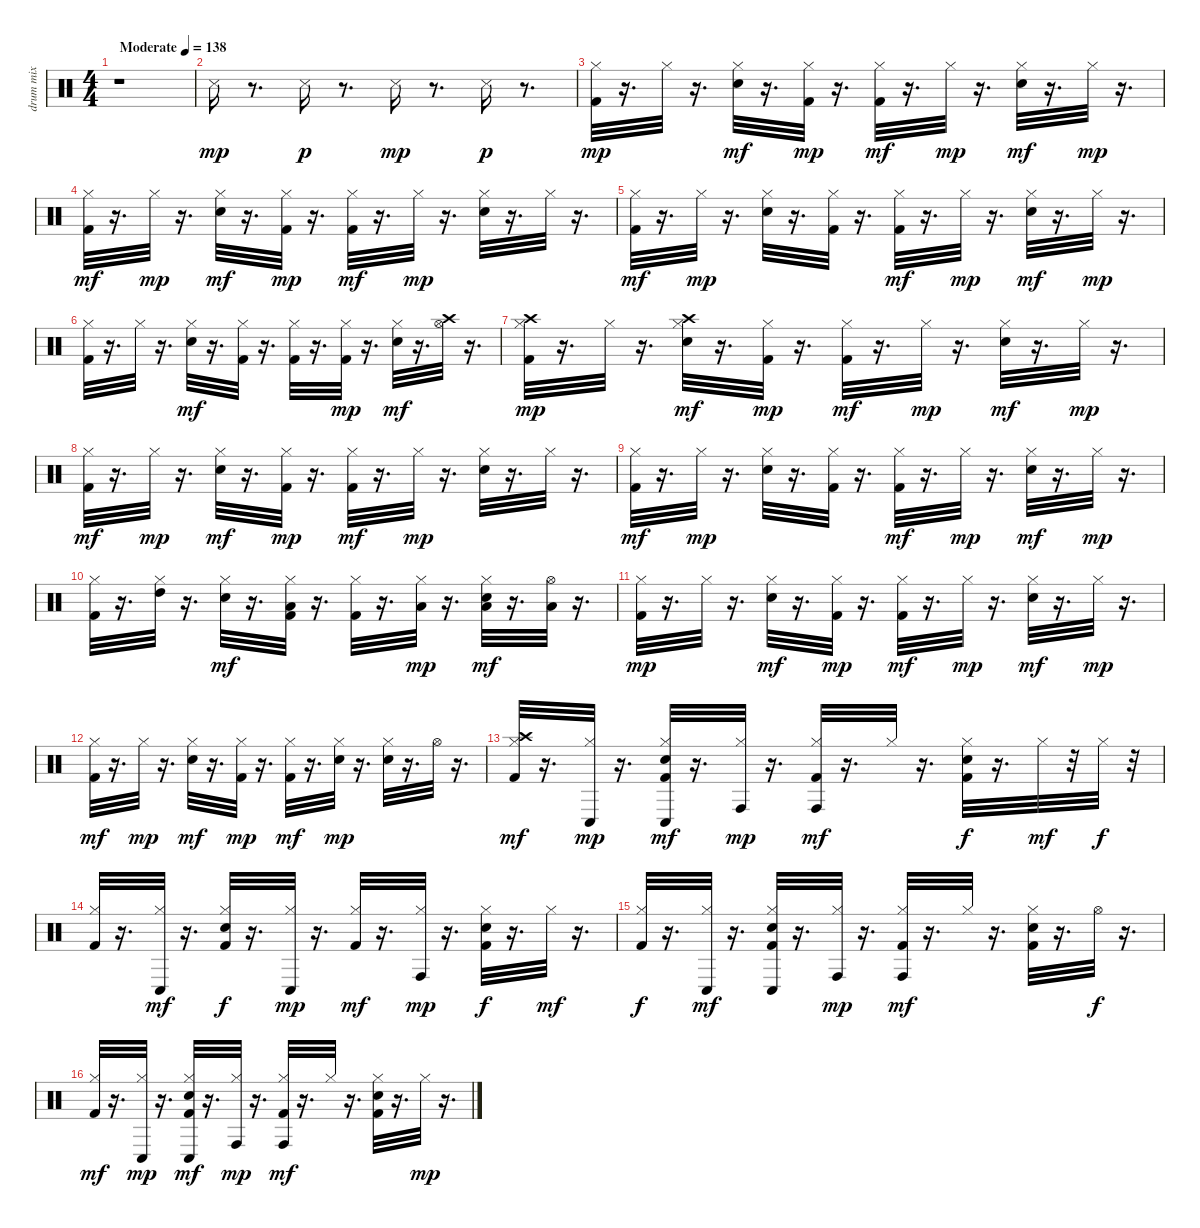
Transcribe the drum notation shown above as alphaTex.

\track ("drum mix" "drum mix") {instrument percussion}
\staff {score}
\articulation defaults
\ts (4 4)
\tempo (138 "Moderate")
\clef neutral
\ks c
r.1{dy mp} |
"Snare (side stick) 3".16 r.8{d} "Snare (side stick) 3".16{dy p} r.8{d} "Snare (side stick) 3".16{dy mp} r.8{d} "Snare (side stick) 3".16{dy p} r.8{d} |
("Hi-Hat (closed)" "Kick (hit) 2").32{dy mp} r.16{d} "Hi-Hat (closed)".32 r.16{d} ("Snare (hit) 2" "Hi-Hat (closed)").32{dy mf} r.16{d} ("Hi-Hat (closed)" "Kick (hit) 2").32{dy mp} r.16{d} ("Hi-Hat (closed)" "Kick (hit) 2").32{dy mf} r.16{d} "Hi-Hat (closed)".32{dy mp} r.16{d} ("Snare (hit) 2" "Hi-Hat (closed)").32{dy mf} r.16{d} "Hi-Hat (closed)".32{dy mp} r.16{d} |
("Hi-Hat (closed)" "Kick (hit) 2").32{dy mf} r.16{d} "Hi-Hat (closed)".32{dy mp} r.16{d} ("Snare (hit) 2" "Hi-Hat (closed)").32{dy mf} r.16{d} ("Hi-Hat (closed)" "Kick (hit) 2").32{dy mp} r.16{d} ("Hi-Hat (closed)" "Kick (hit) 2").32{dy mf} r.16{d} "Hi-Hat (closed)".32{dy mp} r.16{d} ("Snare (hit) 2" "Hi-Hat (closed)").32 r.16{d} "Hi-Hat (closed)".32 r.16{d} |
("Hi-Hat (closed)" "Kick (hit) 2").32{dy mf} r.16{d} "Hi-Hat (closed)".32{dy mp} r.16{d} ("Snare (hit) 2" "Hi-Hat (closed)").32 r.16{d} ("Hi-Hat (closed)" "Kick (hit) 2").32 r.16{d} ("Hi-Hat (closed)" "Kick (hit) 2").32{dy mf} r.16{d} "Hi-Hat (closed)".32{dy mp} r.16{d} ("Snare (hit) 2" "Hi-Hat (closed)").32{dy mf} r.16{d} "Hi-Hat (closed)".32{dy mp} r.16{d} |
("Hi-Hat (closed)" "Kick (hit) 2").32 r.16{d} "Hi-Hat (closed)".32 r.16{d} ("Snare (hit) 2" "Hi-Hat (closed)").32{dy mf} r.16{d} ("Hi-Hat (closed)" "Kick (hit) 2").32 r.16{d} ("Hi-Hat (closed)" "Kick (hit) 2").32 r.16{d} ("Hi-Hat (closed)" "Kick (hit) 2").32{dy mp} r.16{d} ("Snare (hit) 2" "Hi-Hat (closed)").32{dy mf} r.16{d} ("Hi-Hat (open)" "Crash high (hit)").32 r.16{d} |
("Hi-Hat (closed)" "Crash high (hit)" "Kick (hit) 2").32{dy mp} r.16{d} "Hi-Hat (closed)".32 r.16{d} ("Snare (hit) 2" "Hi-Hat (closed)" "Crash high (hit)").32{dy mf} r.16{d} ("Hi-Hat (closed)" "Kick (hit) 2").32{dy mp} r.16{d} ("Hi-Hat (closed)" "Kick (hit) 2").32{dy mf} r.16{d} "Hi-Hat (closed)".32{dy mp} r.16{d} ("Snare (hit) 2" "Hi-Hat (closed)").32{dy mf} r.16{d} "Hi-Hat (closed)".32{dy mp} r.16{d} |
("Hi-Hat (closed)" "Kick (hit) 2").32{dy mf} r.16{d} "Hi-Hat (closed)".32{dy mp} r.16{d} ("Snare (hit) 2" "Hi-Hat (closed)").32{dy mf} r.16{d} ("Hi-Hat (closed)" "Kick (hit) 2").32{dy mp} r.16{d} ("Hi-Hat (closed)" "Kick (hit) 2").32{dy mf} r.16{d} "Hi-Hat (closed)".32{dy mp} r.16{d} ("Snare (hit) 2" "Hi-Hat (closed)").32 r.16{d} "Hi-Hat (closed)".32 r.16{d} |
("Hi-Hat (closed)" "Kick (hit) 2").32{dy mf} r.16{d} "Hi-Hat (closed)".32{dy mp} r.16{d} ("Snare (hit) 2" "Hi-Hat (closed)").32 r.16{d} ("Hi-Hat (closed)" "Kick (hit) 2").32 r.16{d} ("Hi-Hat (closed)" "Kick (hit) 2").32{dy mf} r.16{d} "Hi-Hat (closed)".32{dy mp} r.16{d} ("Snare (hit) 2" "Hi-Hat (closed)").32{dy mf} r.16{d} "Hi-Hat (closed)".32{dy mp} r.16{d} |
("Hi-Hat (closed)" "Kick (hit) 2").32 r.16{d} ("Hi-Hat (closed)" "High Tom (hit)").32 r.16{d} ("Snare (hit) 2" "Hi-Hat (closed)").32{dy mf} r.16{d} ("Hi-Hat (closed)" "Low Tom (hit)" "Kick (hit) 2").32 r.16{d} ("Hi-Hat (closed)" "Kick (hit) 2").32 r.16{d} ("Low Floor Tom (hit)" "Hi-Hat (closed)").32{dy mp} r.16{d} ("Snare (hit) 2" "Low Floor Tom (hit)" "Hi-Hat (closed)").32{dy mf} r.16{d} ("Low Floor Tom (hit)" "Hi-Hat (open)").32 r.16{d} |
("Hi-Hat (closed)" "Kick (hit) 2").32{dy mp} r.16{d} "Hi-Hat (closed)".32 r.16{d} ("Snare (hit) 2" "Hi-Hat (closed)").32{dy mf} r.16{d} ("Hi-Hat (closed)" "Kick (hit) 2").32{dy mp} r.16{d} ("Hi-Hat (closed)" "Kick (hit) 2").32{dy mf} r.16{d} "Hi-Hat (closed)".32{dy mp} r.16{d} ("Snare (hit) 2" "Hi-Hat (closed)").32{dy mf} r.16{d} "Hi-Hat (closed)".32{dy mp} r.16{d} |
("Hi-Hat (closed)" "Kick (hit) 2").32{dy mf} r.16{d} "Hi-Hat (closed)".32{dy mp} r.16{d} ("Snare (hit) 2" "Hi-Hat (closed)").32{dy mf} r.16{d} ("Hi-Hat (closed)" "Kick (hit) 2").32{dy mp} r.16{d} ("Hi-Hat (closed)" "Kick (hit) 2").32{dy mf} r.16{d} ("Snare (hit) 2" "Hi-Hat (closed)").32{dy mp} r.16{d} ("Snare (hit) 2" "Hi-Hat (closed)").32 r.16{d} "Hi-Hat (open)".32 r.16{d} |
("Hi-Hat (closed)" "Crash high (hit)" "Kick (hit) 2").32{dy mf} r.16{d} ("Hi-Hat (closed)" "Conga low (hit)").32{dy mp} r.16{d} ("Snare (hit) 2" "Hi-Hat (closed)" "Conga low (hit)" "Kick (hit) 2").32{dy mf} r.16{d} ("Hi-Hat (closed)" "Conga high (hit)").32{dy mp} r.16{d} ("Hi-Hat (closed)" "Conga high (hit)" "Kick (hit) 2").32{dy mf} r.16{d} "Hi-Hat (closed)".32 r.16{d} ("Snare (hit) 2" "Hi-Hat (closed)" "Kick (hit) 2").32{dy f} r.16{d} "Hi-Hat (closed)".32{dy mf} r.32 "Hi-Hat (closed)".32{dy f} r.32 |
("Hi-Hat (closed)" "Kick (hit) 2").32 r.16{d} ("Hi-Hat (closed)" "Conga low (hit)").32{dy mf} r.16{d} ("Snare (hit) 2" "Hi-Hat (closed)" "Kick (hit) 2").32{dy f} r.16{d} ("Hi-Hat (closed)" "Conga low (hit)").32{dy mp} r.16{d} ("Hi-Hat (closed)" "Kick (hit) 2").32{dy mf} r.16{d} ("Hi-Hat (closed)" "Conga high (hit)").32{dy mp} r.16{d} ("Snare (hit) 2" "Hi-Hat (closed)" "Kick (hit) 2").32{dy f} r.16{d} "Hi-Hat (closed)".32{dy mf} r.16{d} |
("Hi-Hat (closed)" "Kick (hit) 2").32{dy f} r.16{d} ("Hi-Hat (closed)" "Conga low (hit)").32{dy mf} r.16{d} ("Snare (hit) 2" "Hi-Hat (closed)" "Conga low (hit)" "Kick (hit) 2").32 r.16{d} ("Hi-Hat (closed)" "Conga high (hit)").32{dy mp} r.16{d} ("Hi-Hat (closed)" "Conga high (hit)" "Kick (hit) 2").32{dy mf} r.16{d} "Hi-Hat (closed)".32 r.16{d} ("Snare (hit) 2" "Hi-Hat (closed)" "Kick (hit) 2").32 r.16{d} "Hi-Hat (open)".32{dy f} r.16{d} |
("Hi-Hat (closed)" "Kick (hit) 2").32{dy mf} r.16{d} ("Hi-Hat (closed)" "Conga low (hit)").32{dy mp} r.16{d} ("Snare (hit) 2" "Hi-Hat (closed)" "Conga low (hit)" "Kick (hit) 2").32{dy mf} r.16{d} ("Hi-Hat (closed)" "Conga high (hit)").32{dy mp} r.16{d} ("Hi-Hat (closed)" "Conga high (hit)" "Kick (hit) 2").32{dy mf} r.16{d} "Hi-Hat (closed)".32 r.16{d} ("Snare (hit) 2" "Hi-Hat (closed)" "Kick (hit) 2").32 r.16{d} "Hi-Hat (closed)".32{dy mp} r.16{d}
